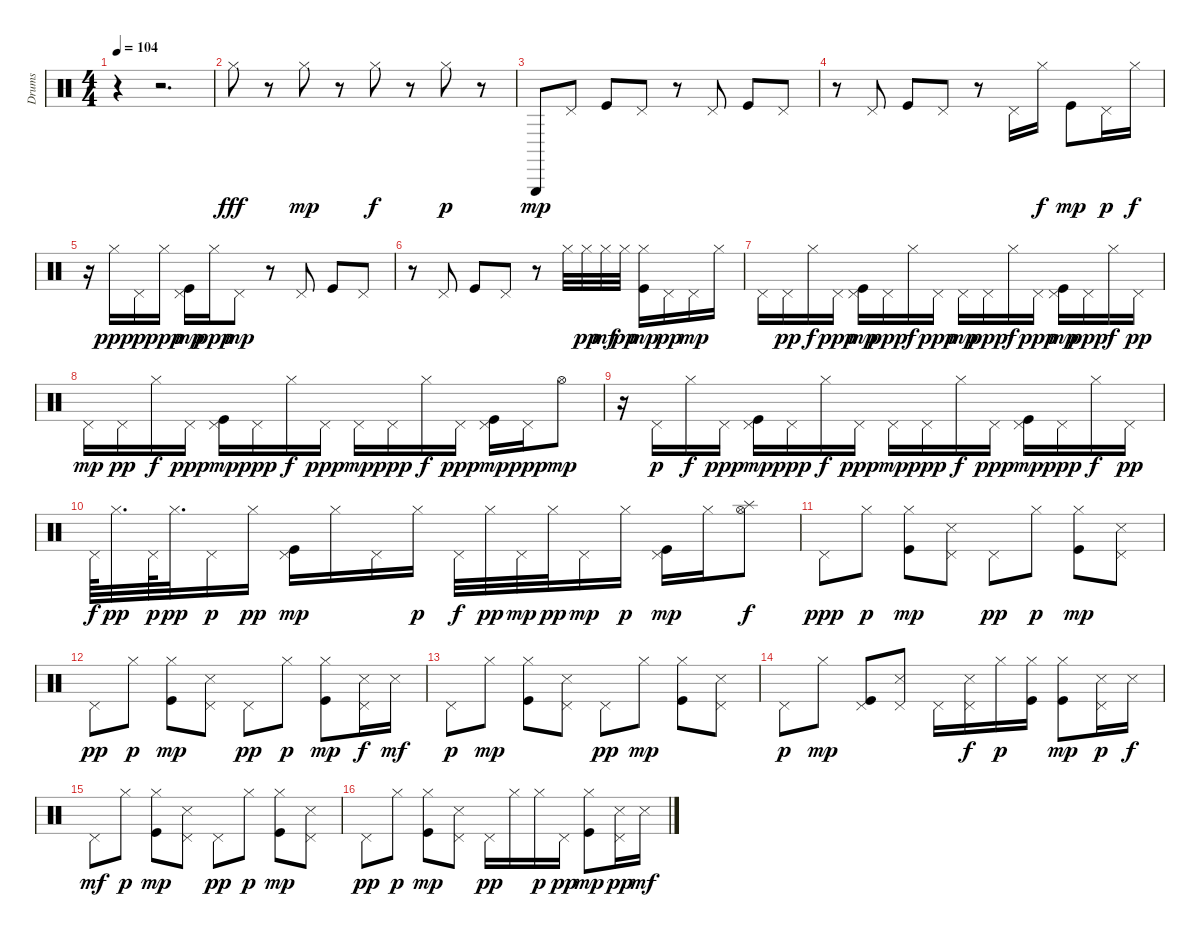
\track ("Drums" "Drums") {instrument percussion}
\staff {score}
\articulation defaults
\ts (4 4)
\tempo 104
\clef neutral
\ks c
r.4{dy fff} r.2{d} |
"Hi-Hat (closed)".8 r.8 "Hi-Hat (closed)".8{dy mp} r.8 "Hi-Hat (closed)".8{dy f} r.8 "Hi-Hat (closed)".8{dy p} r.8 |
"Triangle (hit)".8{dy mp} "Pedal Hi-Hat (hit)".8 "Kick (hit)".8 "Pedal Hi-Hat (hit)".8 r.8 "Pedal Hi-Hat (hit)".8 "Kick (hit)".8 "Pedal Hi-Hat (hit)".8 |
r.8 "Pedal Hi-Hat (hit)".8 "Kick (hit)".8 "Pedal Hi-Hat (hit)".8 r.8 "Pedal Hi-Hat (hit)".16 "Hi-Hat (closed)".16{dy f} "Kick (hit)".8{dy mp} "Pedal Hi-Hat (hit)".16{dy p} "Hi-Hat (closed)".16{dy f} |
r.16 "Hi-Hat (closed)".16{dy ppp} "Pedal Hi-Hat (hit)".16{dy p} "Hi-Hat (closed)".16{dy ppp} ("Pedal Hi-Hat (hit)" "Kick (hit)").16{dy mp} "Hi-Hat (closed)".16{dy ppp} "Pedal Hi-Hat (hit)".8{dy mp} r.8 "Pedal Hi-Hat (hit)".8 "Kick (hit)".8 "Pedal Hi-Hat (hit)".8 |
r.8 "Pedal Hi-Hat (hit)".8 "Kick (hit)".8 "Pedal Hi-Hat (hit)".8 r.8 "Hi-Hat (closed)".32 "Hi-Hat (closed)".32{dy pp} "Hi-Hat (closed)".32{dy mf} "Hi-Hat (closed)".32{dy pp} ("Hi-Hat (closed)" "Kick (hit)").16{dy mp} "Pedal Hi-Hat (hit)".16{dy pp} "Pedal Hi-Hat (hit)".16{dy mp} "Hi-Hat (closed)".16 |
"Pedal Hi-Hat (hit)".16 "Pedal Hi-Hat (hit)".16{dy pp} "Hi-Hat (closed)".16{dy f} "Pedal Hi-Hat (hit)".16{dy ppp} ("Pedal Hi-Hat (hit)" "Kick (hit)").16{dy mp} "Pedal Hi-Hat (hit)".16{dy ppp} "Hi-Hat (closed)".16{dy f} "Pedal Hi-Hat (hit)".16{dy ppp} "Pedal Hi-Hat (hit)".16{dy mp} "Pedal Hi-Hat (hit)".16{dy ppp} "Hi-Hat (closed)".16{dy f} "Pedal Hi-Hat (hit)".16{dy ppp} ("Pedal Hi-Hat (hit)" "Kick (hit)").16{dy mp} "Pedal Hi-Hat (hit)".16{dy ppp} "Hi-Hat (closed)".16{dy f} "Pedal Hi-Hat (hit)".16{dy pp} |
"Pedal Hi-Hat (hit)".16{dy mp} "Pedal Hi-Hat (hit)".16{dy pp} "Hi-Hat (closed)".16{dy f} "Pedal Hi-Hat (hit)".16{dy ppp} ("Pedal Hi-Hat (hit)" "Kick (hit)").16{dy mp} "Pedal Hi-Hat (hit)".16{dy ppp} "Hi-Hat (closed)".16{dy f} "Pedal Hi-Hat (hit)".16{dy ppp} "Pedal Hi-Hat (hit)".16{dy mp} "Pedal Hi-Hat (hit)".16{dy ppp} "Hi-Hat (closed)".16{dy f} "Pedal Hi-Hat (hit)".16{dy ppp} ("Pedal Hi-Hat (hit)" "Kick (hit)").16{dy mp} "Pedal Hi-Hat (hit)".16{dy ppp} "Hi-Hat (open)".8{dy mp} |
r.16 "Pedal Hi-Hat (hit)".16{dy p} "Hi-Hat (closed)".16{dy f} "Pedal Hi-Hat (hit)".16{dy ppp} ("Pedal Hi-Hat (hit)" "Kick (hit)").16{dy mp} "Pedal Hi-Hat (hit)".16{dy ppp} "Hi-Hat (closed)".16{dy f} "Pedal Hi-Hat (hit)".16{dy ppp} "Pedal Hi-Hat (hit)".16{dy mp} "Pedal Hi-Hat (hit)".16{dy ppp} "Hi-Hat (closed)".16{dy f} "Pedal Hi-Hat (hit)".16{dy ppp} ("Pedal Hi-Hat (hit)" "Kick (hit)").16{dy mp} "Pedal Hi-Hat (hit)".16{dy ppp} "Hi-Hat (closed)".16{dy f} "Pedal Hi-Hat (hit)".16{dy pp} |
"Pedal Hi-Hat (hit)".64{dy f} "Hi-Hat (closed)".32{d dy pp} "Pedal Hi-Hat (hit)".64{dy p} "Hi-Hat (closed)".32{d dy pp} "Pedal Hi-Hat (hit)".16{dy p} "Hi-Hat (closed)".16{dy pp} ("Pedal Hi-Hat (hit)" "Kick (hit)").16{dy mp} "Hi-Hat (closed)".16 "Pedal Hi-Hat (hit)".16 "Hi-Hat (closed)".16{dy p} "Pedal Hi-Hat (hit)".32{dy f} "Hi-Hat (closed)".32{dy pp} "Pedal Hi-Hat (hit)".32{dy mp} "Hi-Hat (closed)".32{dy pp} "Pedal Hi-Hat (hit)".16{dy mp} "Hi-Hat (closed)".16{dy p} ("Pedal Hi-Hat (hit)" "Kick (hit)").16{dy mp} "Hi-Hat (closed)".16 ("Hi-Hat (open)" "Splash (hit)").8{dy f} |
"Pedal Hi-Hat (hit)".8{dy ppp} "Hi-Hat (closed)".8{dy p} ("Hi-Hat (closed)" "Kick (hit)").8{dy mp} ("Pedal Hi-Hat (hit)" "Snare (side stick) 3").8 "Pedal Hi-Hat (hit)".8{dy pp} "Hi-Hat (closed)".8{dy p} ("Hi-Hat (closed)" "Kick (hit)").8{dy mp} ("Pedal Hi-Hat (hit)" "Snare (side stick) 3").8 |
"Pedal Hi-Hat (hit)".8{dy pp} "Hi-Hat (closed)".8{dy p} ("Hi-Hat (closed)" "Kick (hit)").8{dy mp} ("Pedal Hi-Hat (hit)" "Snare (side stick) 3").8 "Pedal Hi-Hat (hit)".8{dy pp} "Hi-Hat (closed)".8{dy p} ("Hi-Hat (closed)" "Kick (hit)").8{dy mp} ("Pedal Hi-Hat (hit)" "Snare (side stick) 3").16{dy f} "Snare (side stick) 3".16{dy mf} |
"Pedal Hi-Hat (hit)".8{dy p} "Hi-Hat (closed)".8{dy mp} ("Hi-Hat (closed)" "Kick (hit)").8 ("Pedal Hi-Hat (hit)" "Snare (side stick) 3").8 "Pedal Hi-Hat (hit)".8{dy pp} "Hi-Hat (closed)".8{dy mp} ("Hi-Hat (closed)" "Kick (hit)").8 ("Pedal Hi-Hat (hit)" "Snare (side stick) 3").8 |
"Pedal Hi-Hat (hit)".8{dy p} "Hi-Hat (closed)".8{dy mp} ("Pedal Hi-Hat (hit)" "Kick (hit)").8 ("Pedal Hi-Hat (hit)" "Snare (side stick) 3").8 "Pedal Hi-Hat (hit)".16 ("Pedal Hi-Hat (hit)" "Snare (side stick) 3").16{dy f} "Hi-Hat (closed)".16{dy p} ("Hi-Hat (closed)" "Kick (hit)").16 ("Hi-Hat (closed)" "Kick (hit)").8{dy mp} ("Pedal Hi-Hat (hit)" "Snare (side stick) 3").16{dy p} "Snare (side stick) 3".16{dy f} |
"Pedal Hi-Hat (hit)".8{dy mf} "Hi-Hat (closed)".8{dy p} ("Hi-Hat (closed)" "Kick (hit)").8{dy mp} ("Pedal Hi-Hat (hit)" "Snare (side stick) 3").8 "Pedal Hi-Hat (hit)".8{dy pp} "Hi-Hat (closed)".8{dy p} ("Hi-Hat (closed)" "Kick (hit)").8{dy mp} ("Pedal Hi-Hat (hit)" "Snare (side stick) 3").8 |
"Pedal Hi-Hat (hit)".8{dy pp} "Hi-Hat (closed)".8{dy p} ("Hi-Hat (closed)" "Kick (hit)").8{dy mp} ("Pedal Hi-Hat (hit)" "Snare (side stick) 3").8 "Pedal Hi-Hat (hit)".16{dy pp} "Hi-Hat (closed)".16 "Hi-Hat (closed)".16{dy p} "Pedal Hi-Hat (hit)".16{dy pp} ("Hi-Hat (closed)" "Kick (hit)").8{dy mp} ("Pedal Hi-Hat (hit)" "Snare (side stick) 3").16{dy pp} "Snare (side stick) 3".16{dy mf}
